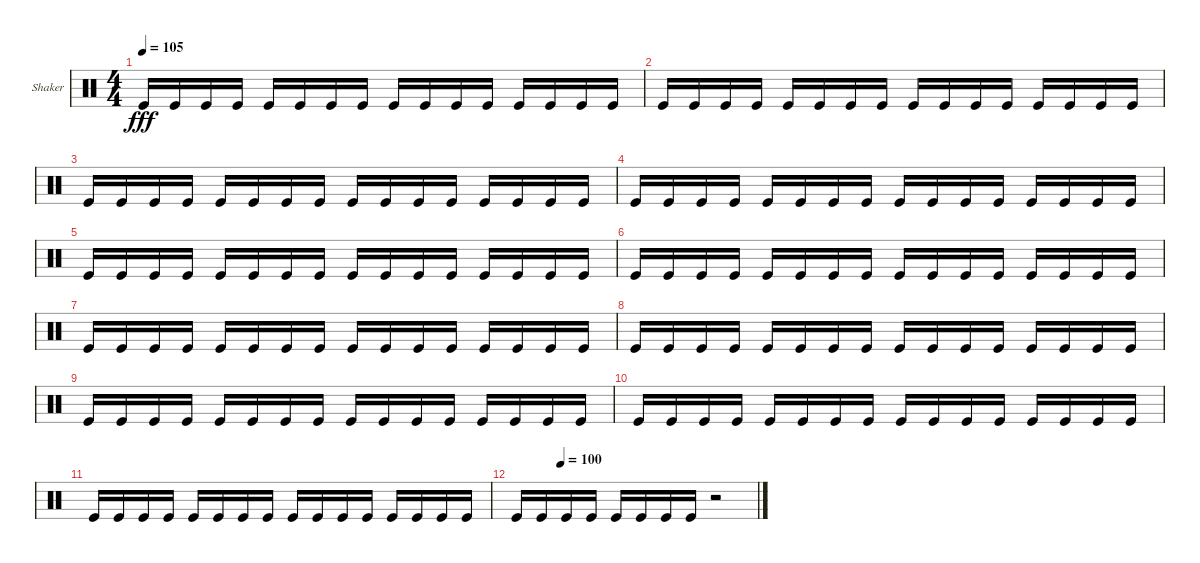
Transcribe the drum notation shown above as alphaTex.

\bracketExtendMode groupsimilarinstruments
\firstSystemTrackNameOrientation horizontal
\otherSystemsTrackNameOrientation horizontal
\track ("Shaker" "Shaker") {instrument percussion}
\staff {score}
\articulation defaults
\ts (4 4)
\tempo 105
\clef neutral
\scale
0.333333
\ks c "Kick (hit)".16{dy fff} "Kick (hit)".16 "Kick (hit)".16 "Kick (hit)".16 "Kick (hit)".16 "Kick (hit)".16 "Kick (hit)".16 "Kick (hit)".16 "Kick (hit)".16 "Kick (hit)".16 "Kick (hit)".16 "Kick (hit)".16 "Kick (hit)".16 "Kick (hit)".16 "Kick (hit)".16 "Kick (hit)".16
|
\scale
0.333333 "Kick (hit)".16 "Kick (hit)".16 "Kick (hit)".16 "Kick (hit)".16 "Kick (hit)".16 "Kick (hit)".16 "Kick (hit)".16 "Kick (hit)".16 "Kick (hit)".16 "Kick (hit)".16 "Kick (hit)".16 "Kick (hit)".16 "Kick (hit)".16 "Kick (hit)".16 "Kick (hit)".16 "Kick (hit)".16 |
\scale
0.333333 "Kick (hit)".16 "Kick (hit)".16 "Kick (hit)".16 "Kick (hit)".16 "Kick (hit)".16 "Kick (hit)".16 "Kick (hit)".16 "Kick (hit)".16 "Kick (hit)".16 "Kick (hit)".16 "Kick (hit)".16 "Kick (hit)".16 "Kick (hit)".16 "Kick (hit)".16 "Kick (hit)".16 "Kick (hit)".16 |
\scale
0.333333 "Kick (hit)".16 "Kick (hit)".16 "Kick (hit)".16 "Kick (hit)".16 "Kick (hit)".16 "Kick (hit)".16 "Kick (hit)".16 "Kick (hit)".16 "Kick (hit)".16 "Kick (hit)".16 "Kick (hit)".16 "Kick (hit)".16 "Kick (hit)".16 "Kick (hit)".16 "Kick (hit)".16 "Kick (hit)".16 |
\scale
0.333333 "Kick (hit)".16 "Kick (hit)".16 "Kick (hit)".16 "Kick (hit)".16 "Kick (hit)".16 "Kick (hit)".16 "Kick (hit)".16 "Kick (hit)".16 "Kick (hit)".16 "Kick (hit)".16 "Kick (hit)".16 "Kick (hit)".16 "Kick (hit)".16 "Kick (hit)".16 "Kick (hit)".16 "Kick (hit)".16 |
\scale
0.333333 "Kick (hit)".16 "Kick (hit)".16 "Kick (hit)".16 "Kick (hit)".16 "Kick (hit)".16 "Kick (hit)".16 "Kick (hit)".16 "Kick (hit)".16 "Kick (hit)".16 "Kick (hit)".16 "Kick (hit)".16 "Kick (hit)".16 "Kick (hit)".16 "Kick (hit)".16 "Kick (hit)".16 "Kick (hit)".16 |
\scale
0.333333 "Kick (hit)".16 "Kick (hit)".16 "Kick (hit)".16 "Kick (hit)".16 "Kick (hit)".16 "Kick (hit)".16 "Kick (hit)".16 "Kick (hit)".16 "Kick (hit)".16 "Kick (hit)".16 "Kick (hit)".16 "Kick (hit)".16 "Kick (hit)".16 "Kick (hit)".16 "Kick (hit)".16 "Kick (hit)".16 |
\scale
0.333333 "Kick (hit)".16 "Kick (hit)".16 "Kick (hit)".16 "Kick (hit)".16 "Kick (hit)".16 "Kick (hit)".16 "Kick (hit)".16 "Kick (hit)".16 "Kick (hit)".16 "Kick (hit)".16 "Kick (hit)".16 "Kick (hit)".16 "Kick (hit)".16 "Kick (hit)".16 "Kick (hit)".16 "Kick (hit)".16 |
\scale
0.333333 "Kick (hit)".16 "Kick (hit)".16 "Kick (hit)".16 "Kick (hit)".16 "Kick (hit)".16 "Kick (hit)".16 "Kick (hit)".16 "Kick (hit)".16 "Kick (hit)".16 "Kick (hit)".16 "Kick (hit)".16 "Kick (hit)".16 "Kick (hit)".16 "Kick (hit)".16 "Kick (hit)".16 "Kick (hit)".16 |
\scale
0.333333 "Kick (hit)".16 "Kick (hit)".16 "Kick (hit)".16 "Kick (hit)".16 "Kick (hit)".16 "Kick (hit)".16 "Kick (hit)".16 "Kick (hit)".16 "Kick (hit)".16 "Kick (hit)".16 "Kick (hit)".16 "Kick (hit)".16 "Kick (hit)".16 "Kick (hit)".16 "Kick (hit)".16 "Kick (hit)".16 |
\scale
0.333333 "Kick (hit)".16 "Kick (hit)".16 "Kick (hit)".16 "Kick (hit)".16 "Kick (hit)".16 "Kick (hit)".16 "Kick (hit)".16 "Kick (hit)".16 "Kick (hit)".16 "Kick (hit)".16 "Kick (hit)".16 "Kick (hit)".16 "Kick (hit)".16 "Kick (hit)".16 "Kick (hit)".16 "Kick (hit)".16 |
\tempo (100 0.1875)
\scale
0.333333 "Kick (hit)".16 "Kick (hit)".16 "Kick (hit)".16 "Kick (hit)".16 "Kick (hit)".16 "Kick (hit)".16 "Kick (hit)".16 "Kick (hit)".16 r.2 |
\scale
0.333333 |
\scale
0.333333 |
\scale
0.333333 |
\scale
0.333333
